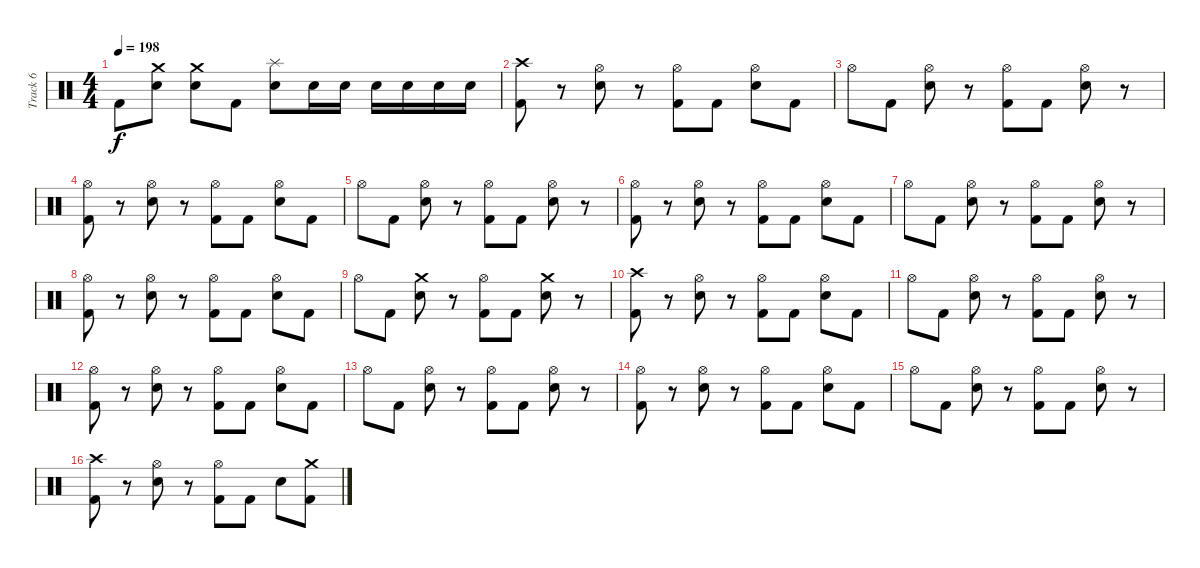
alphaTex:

\track ("Track 6" "Track 6") {instrument percussion}
\staff {score}
\articulation defaults
\ts (4 4)
\tempo 198
\clef neutral
\ks c "Kick (hit) 2".8{dy f}
("Crash medium (hit)" "Electric Snare (hit)").8 ("Crash medium (hit)" "Electric Snare (hit)").8 "Kick (hit) 2".8 ("Splash (hit)" "Electric Snare (hit)").8 "Electric Snare (hit)".16 "Electric Snare (hit)".16 "Electric Snare (hit)".16 "Electric Snare (hit)".16 "Electric Snare (hit)".16 "Electric Snare (hit)".16 |
("Crash high (hit)" "Kick (hit) 2").8 r.8 ("Hi-Hat (open)" "Electric Snare (hit)").8 r.8 ("Hi-Hat (open)" "Kick (hit) 2").8 "Kick (hit) 2".8 ("Hi-Hat (open)" "Electric Snare (hit)").8 "Kick (hit) 2".8 |
"Hi-Hat (open)".8 "Kick (hit) 2".8 ("Hi-Hat (open)" "Electric Snare (hit)").8 r.8 ("Hi-Hat (open)" "Kick (hit) 2").8 "Kick (hit) 2".8 ("Hi-Hat (open)" "Electric Snare (hit)").8 r.8 |
("Hi-Hat (open)" "Kick (hit) 2").8 r.8 ("Hi-Hat (open)" "Electric Snare (hit)").8 r.8 ("Hi-Hat (open)" "Kick (hit) 2").8 "Kick (hit) 2".8 ("Hi-Hat (open)" "Electric Snare (hit)").8 "Kick (hit) 2".8 |
"Hi-Hat (open)".8 "Kick (hit) 2".8 ("Hi-Hat (open)" "Electric Snare (hit)").8 r.8 ("Hi-Hat (open)" "Kick (hit) 2").8 "Kick (hit) 2".8 ("Hi-Hat (open)" "Electric Snare (hit)").8 r.8 |
("Hi-Hat (open)" "Kick (hit) 2").8 r.8 ("Hi-Hat (open)" "Electric Snare (hit)").8 r.8 ("Hi-Hat (open)" "Kick (hit) 2").8 "Kick (hit) 2".8 ("Hi-Hat (open)" "Electric Snare (hit)").8 "Kick (hit) 2".8 |
"Hi-Hat (open)".8 "Kick (hit) 2".8 ("Hi-Hat (open)" "Electric Snare (hit)").8 r.8 ("Hi-Hat (open)" "Kick (hit) 2").8 "Kick (hit) 2".8 ("Hi-Hat (open)" "Electric Snare (hit)").8 r.8 |
("Hi-Hat (open)" "Kick (hit) 2").8 r.8 ("Hi-Hat (open)" "Electric Snare (hit)").8 r.8 ("Hi-Hat (open)" "Kick (hit) 2").8 "Kick (hit) 2".8 ("Hi-Hat (open)" "Electric Snare (hit)").8 "Kick (hit) 2".8 |
"Hi-Hat (open)".8 "Kick (hit) 2".8 ("Crash medium (hit)" "Electric Snare (hit)").8 r.8 ("Hi-Hat (open)" "Kick (hit) 2").8 "Kick (hit) 2".8 ("Crash medium (hit)" "Electric Snare (hit)").8 r.8 |
("Crash high (hit)" "Kick (hit) 2").8 r.8 ("Hi-Hat (open)" "Electric Snare (hit)").8 r.8 ("Hi-Hat (open)" "Kick (hit) 2").8 "Kick (hit) 2".8 ("Hi-Hat (open)" "Electric Snare (hit)").8 "Kick (hit) 2".8 |
"Hi-Hat (open)".8 "Kick (hit) 2".8 ("Hi-Hat (open)" "Electric Snare (hit)").8 r.8 ("Hi-Hat (open)" "Kick (hit) 2").8 "Kick (hit) 2".8 ("Hi-Hat (open)" "Electric Snare (hit)").8 r.8 |
("Hi-Hat (open)" "Kick (hit) 2").8 r.8 ("Hi-Hat (open)" "Electric Snare (hit)").8 r.8 ("Hi-Hat (open)" "Kick (hit) 2").8 "Kick (hit) 2".8 ("Hi-Hat (open)" "Electric Snare (hit)").8 "Kick (hit) 2".8 |
"Hi-Hat (open)".8 "Kick (hit) 2".8 ("Hi-Hat (open)" "Electric Snare (hit)").8 r.8 ("Hi-Hat (open)" "Kick (hit) 2").8 "Kick (hit) 2".8 ("Hi-Hat (open)" "Electric Snare (hit)").8 r.8 |
("Hi-Hat (open)" "Kick (hit) 2").8 r.8 ("Hi-Hat (open)" "Electric Snare (hit)").8 r.8 ("Hi-Hat (open)" "Kick (hit) 2").8 "Kick (hit) 2".8 ("Hi-Hat (open)" "Electric Snare (hit)").8 "Kick (hit) 2".8 |
"Hi-Hat (open)".8 "Kick (hit) 2".8 ("Hi-Hat (open)" "Electric Snare (hit)").8 r.8 ("Hi-Hat (open)" "Kick (hit) 2").8 "Kick (hit) 2".8 ("Hi-Hat (open)" "Electric Snare (hit)").8 r.8 |
("Crash high (hit)" "Kick (hit) 2").8 r.8 ("Hi-Hat (open)" "Electric Snare (hit)").8 r.8 ("Hi-Hat (open)" "Kick (hit) 2").8 "Kick (hit) 2".8 "Electric Snare (hit)".8 ("Crash medium (hit)" "Kick (hit) 2").8
